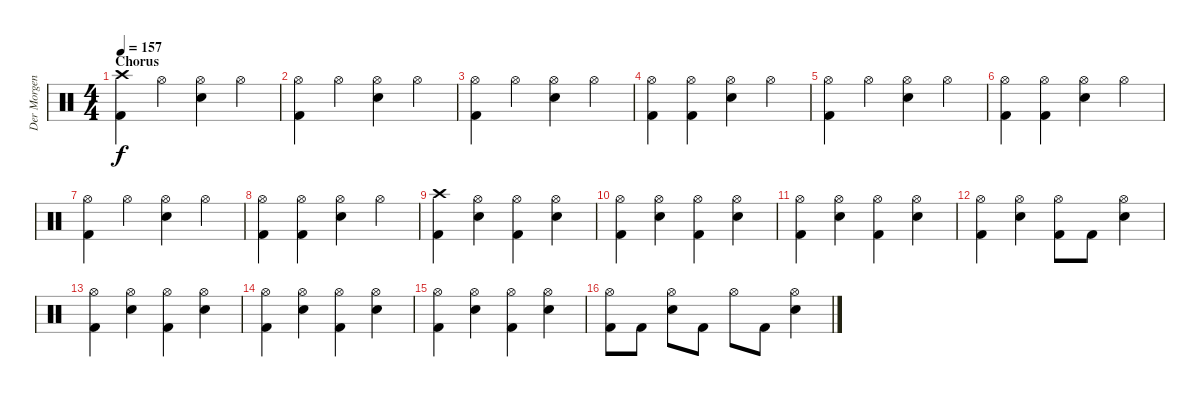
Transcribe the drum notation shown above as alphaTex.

\track ("Der Morgenstern" "Der Morgen") {instrument percussion}
\staff {score}
\articulation defaults
\ts (4 4)
\section ("" "Chorus")
\tempo 157
\clef neutral
\ks c
("Crash high (hit)" "Kick (hit) 2").4{dy f} "Hi-Hat (open)".4 ("Hi-Hat (open)" "Electric Snare (hit)").4 "Hi-Hat (open)".4 |
("Hi-Hat (open)" "Kick (hit) 2").4 "Hi-Hat (open)".4 ("Hi-Hat (open)" "Electric Snare (hit)").4 "Hi-Hat (open)".4 |
("Hi-Hat (open)" "Kick (hit) 2").4 "Hi-Hat (open)".4 ("Hi-Hat (open)" "Electric Snare (hit)").4 "Hi-Hat (open)".4 |
("Hi-Hat (open)" "Kick (hit) 2").4 ("Hi-Hat (open)" "Kick (hit) 2").4 ("Hi-Hat (open)" "Electric Snare (hit)").4 "Hi-Hat (open)".4 |
("Hi-Hat (open)" "Kick (hit) 2").4 "Hi-Hat (open)".4 ("Hi-Hat (open)" "Electric Snare (hit)").4 "Hi-Hat (open)".4 |
("Hi-Hat (open)" "Kick (hit) 2").4 ("Hi-Hat (open)" "Kick (hit) 2").4 ("Hi-Hat (open)" "Electric Snare (hit)").4 "Hi-Hat (open)".4 |
("Hi-Hat (open)" "Kick (hit) 2").4 "Hi-Hat (open)".4 ("Hi-Hat (open)" "Electric Snare (hit)").4 "Hi-Hat (open)".4 |
("Hi-Hat (open)" "Kick (hit) 2").4 ("Hi-Hat (open)" "Kick (hit) 2").4 ("Hi-Hat (open)" "Electric Snare (hit)").4 "Hi-Hat (open)".4 |
("Crash high (hit)" "Kick (hit) 2").4 ("Hi-Hat (open)" "Electric Snare (hit)").4 ("Hi-Hat (open)" "Kick (hit) 2").4 ("Hi-Hat (open)" "Electric Snare (hit)").4 |
("Hi-Hat (open)" "Kick (hit) 2").4 ("Hi-Hat (open)" "Electric Snare (hit)").4 ("Hi-Hat (open)" "Kick (hit) 2").4 ("Hi-Hat (open)" "Electric Snare (hit)").4 |
("Hi-Hat (open)" "Kick (hit) 2").4 ("Hi-Hat (open)" "Electric Snare (hit)").4 ("Hi-Hat (open)" "Kick (hit) 2").4 ("Hi-Hat (open)" "Electric Snare (hit)").4 |
("Hi-Hat (open)" "Kick (hit) 2").4 ("Hi-Hat (open)" "Electric Snare (hit)").4 ("Hi-Hat (open)" "Kick (hit) 2").8 "Kick (hit) 2".8 ("Hi-Hat (open)" "Electric Snare (hit)").4 |
("Hi-Hat (open)" "Kick (hit) 2").4 ("Hi-Hat (open)" "Electric Snare (hit)").4 ("Hi-Hat (open)" "Kick (hit) 2").4 ("Hi-Hat (open)" "Electric Snare (hit)").4 |
("Hi-Hat (open)" "Kick (hit) 2").4 ("Hi-Hat (open)" "Electric Snare (hit)").4 ("Hi-Hat (open)" "Kick (hit) 2").4 ("Hi-Hat (open)" "Electric Snare (hit)").4 |
("Hi-Hat (open)" "Kick (hit) 2").4 ("Hi-Hat (open)" "Electric Snare (hit)").4 ("Hi-Hat (open)" "Kick (hit) 2").4 ("Hi-Hat (open)" "Electric Snare (hit)").4 |
("Hi-Hat (open)" "Kick (hit) 2").8 "Kick (hit) 2".8 ("Hi-Hat (open)" "Electric Snare (hit)").8 "Kick (hit) 2".8 "Hi-Hat (open)".8 "Kick (hit) 2".8 ("Hi-Hat (open)" "Electric Snare (hit)").4
